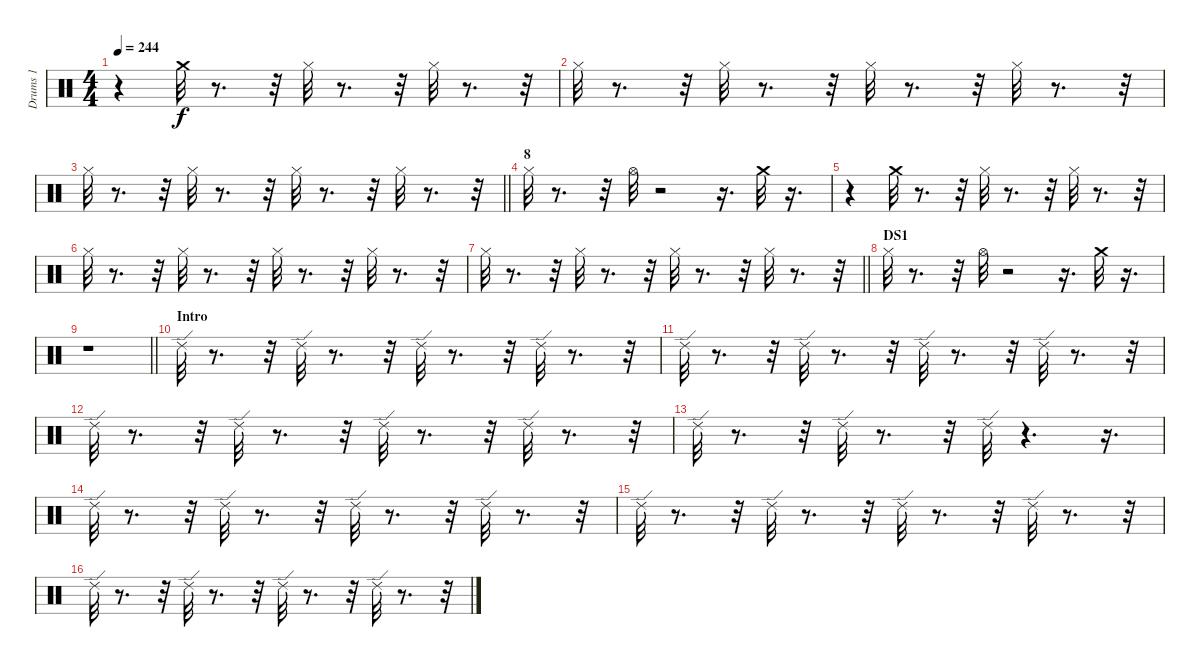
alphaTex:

\track ("Drums 1" "Drums 1") {instrument percussion}
\staff {score}
\articulation defaults
\ts (4 4)
\tempo 244
\clef neutral
\ks c
r.4{dy f} "Crash medium (hit)".32 r.8{d} r.32 "Hi-Hat (closed)".32 r.8{d} r.32 "Hi-Hat (closed)".32 r.8{d} r.32 |
"Hi-Hat (closed)".32 r.8{d} r.32 "Hi-Hat (closed)".32 r.8{d} r.32 "Hi-Hat (closed)".32 r.8{d} r.32 "Hi-Hat (closed)".32 r.8{d} r.32 |
\barLineRight lightlight "Hi-Hat (closed)".32
r.8{d} r.32 "Hi-Hat (closed)".32 r.8{d} r.32 "Hi-Hat (closed)".32 r.8{d} r.32 "Hi-Hat (closed)".32 r.8{d} r.32 |
\section ("" "8")
"Hi-Hat (closed)".32 r.8{d} r.32 "Hi-Hat (open)".32 r.2 r.16{d} "Crash medium (hit)".32 r.16{d} |
r.4 "Crash medium (hit)".32 r.8{d} r.32 "Hi-Hat (closed)".32 r.8{d} r.32 "Hi-Hat (closed)".32 r.8{d} r.32 |
"Hi-Hat (closed)".32 r.8{d} r.32 "Hi-Hat (closed)".32 r.8{d} r.32 "Hi-Hat (closed)".32 r.8{d} r.32 "Hi-Hat (closed)".32 r.8{d} r.32 |
\barLineRight lightlight "Hi-Hat (closed)".32
r.8{d} r.32 "Hi-Hat (closed)".32 r.8{d} r.32 "Hi-Hat (closed)".32 r.8{d} r.32 "Hi-Hat (closed)".32 r.8{d} r.32 |
\section ("" "DS1")
"Hi-Hat (closed)".32 r.8{d} r.32 "Hi-Hat (open)".32 r.2 r.16{d} "Crash medium (hit)".32 r.16{d} |
\barLineRight lightlight
r.1 |
\section ("" "Intro")
"Ride (edge) 2".32 r.8{d} r.32 "Ride (edge) 2".32 r.8{d} r.32 "Ride (edge) 2".32 r.8{d} r.32 "Ride (edge) 2".32 r.8{d} r.32 |
"Ride (edge) 2".32 r.8{d} r.32 "Ride (edge) 2".32 r.8{d} r.32 "Ride (edge) 2".32 r.8{d} r.32 "Ride (edge) 2".32 r.8{d} r.32 |
"Ride (edge) 2".32 r.8{d} r.32 "Ride (edge) 2".32 r.8{d} r.32 "Ride (edge) 2".32 r.8{d} r.32 "Ride (edge) 2".32 r.8{d} r.32 |
"Ride (edge) 2".32 r.8{d} r.32 "Ride (edge) 2".32 r.8{d} r.32 "Ride (edge) 2".32 r.4{d} r.16{d} |
"Ride (edge) 2".32 r.8{d} r.32 "Ride (edge) 2".32 r.8{d} r.32 "Ride (edge) 2".32 r.8{d} r.32 "Ride (edge) 2".32 r.8{d} r.32 |
"Ride (edge) 2".32 r.8{d} r.32 "Ride (edge) 2".32 r.8{d} r.32 "Ride (edge) 2".32 r.8{d} r.32 "Ride (edge) 2".32 r.8{d} r.32 |
"Ride (edge) 2".32 r.8{d} r.32 "Ride (edge) 2".32 r.8{d} r.32 "Ride (edge) 2".32 r.8{d} r.32 "Ride (edge) 2".32 r.8{d} r.32
